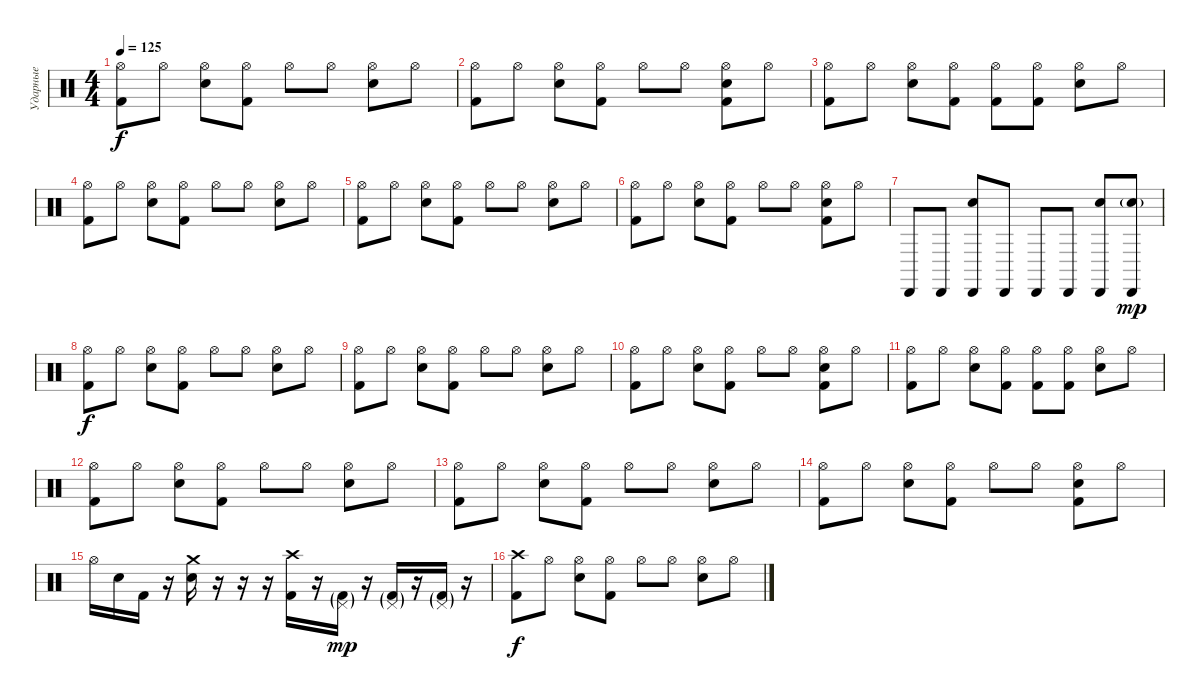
\track ("Ударные" "Ударные") {instrument percussion}
\staff {score}
\articulation defaults
\ts (4 4)
\tempo 125
\clef neutral
\ks c
("Hi-Hat (open)" "Kick (hit) 2").8{dy f} "Hi-Hat (open)".8 ("Hi-Hat (open)" "Snare (hit) 2").8 ("Hi-Hat (open)" "Kick (hit) 2").8 "Hi-Hat (open)".8 "Hi-Hat (open)".8 ("Hi-Hat (open)" "Snare (hit) 2").8 "Hi-Hat (open)".8 |
("Hi-Hat (open)" "Kick (hit) 2").8 "Hi-Hat (open)".8 ("Hi-Hat (open)" "Snare (hit) 2").8 ("Hi-Hat (open)" "Kick (hit) 2").8 "Hi-Hat (open)".8 "Hi-Hat (open)".8 ("Hi-Hat (open)" "Snare (hit) 2" "Kick (hit) 2").8 "Hi-Hat (open)".8 |
("Hi-Hat (open)" "Kick (hit) 2").8 "Hi-Hat (open)".8 ("Hi-Hat (open)" "Snare (hit) 2").8 ("Hi-Hat (open)" "Kick (hit) 2").8 ("Hi-Hat (open)" "Kick (hit) 2").8 ("Hi-Hat (open)" "Kick (hit) 2").8 ("Hi-Hat (open)" "Snare (hit) 2").8 "Hi-Hat (open)".8 |
("Hi-Hat (open)" "Kick (hit) 2").8 "Hi-Hat (open)".8 ("Hi-Hat (open)" "Snare (hit) 2").8 ("Hi-Hat (open)" "Kick (hit) 2").8 "Hi-Hat (open)".8 "Hi-Hat (open)".8 ("Hi-Hat (open)" "Snare (hit) 2").8 "Hi-Hat (open)".8 |
("Hi-Hat (open)" "Kick (hit) 2").8 "Hi-Hat (open)".8 ("Hi-Hat (open)" "Snare (hit) 2").8 ("Hi-Hat (open)" "Kick (hit) 2").8 "Hi-Hat (open)".8 "Hi-Hat (open)".8 ("Hi-Hat (open)" "Snare (hit) 2").8 "Hi-Hat (open)".8 |
("Hi-Hat (open)" "Kick (hit) 2").8 "Hi-Hat (open)".8 ("Hi-Hat (open)" "Snare (hit) 2").8 ("Hi-Hat (open)" "Kick (hit) 2").8 "Hi-Hat (open)".8 "Hi-Hat (open)".8 ("Hi-Hat (open)" "Snare (hit) 2" "Kick (hit) 2").8 "Hi-Hat (open)".8 |
"Cabasa (hit)".8 "Cabasa (hit)".8 ("Cabasa (hit)" "Electric Snare (hit)").8 "Cabasa (hit)".8 "Cabasa (hit)".8 "Cabasa (hit)".8 ("Cabasa (hit)" "Electric Snare (hit)").8 ("Cabasa (hit)" "Electric Snare (hit)"{g}).8{dy mp} |
("Hi-Hat (open)" "Kick (hit) 2").8{dy f} "Hi-Hat (open)".8 ("Hi-Hat (open)" "Snare (hit) 2").8 ("Hi-Hat (open)" "Kick (hit) 2").8 "Hi-Hat (open)".8 "Hi-Hat (open)".8 ("Hi-Hat (open)" "Snare (hit) 2").8 "Hi-Hat (open)".8 |
("Hi-Hat (open)" "Kick (hit) 2").8 "Hi-Hat (open)".8 ("Hi-Hat (open)" "Snare (hit) 2").8 ("Hi-Hat (open)" "Kick (hit) 2").8 "Hi-Hat (open)".8 "Hi-Hat (open)".8 ("Hi-Hat (open)" "Snare (hit) 2").8 "Hi-Hat (open)".8 |
("Hi-Hat (open)" "Kick (hit) 2").8 "Hi-Hat (open)".8 ("Hi-Hat (open)" "Snare (hit) 2").8 ("Hi-Hat (open)" "Kick (hit) 2").8 "Hi-Hat (open)".8 "Hi-Hat (open)".8 ("Hi-Hat (open)" "Snare (hit) 2" "Kick (hit) 2").8 "Hi-Hat (open)".8 |
("Hi-Hat (open)" "Kick (hit) 2").8 "Hi-Hat (open)".8 ("Hi-Hat (open)" "Snare (hit) 2").8 ("Hi-Hat (open)" "Kick (hit) 2").8 ("Hi-Hat (open)" "Kick (hit) 2").8 ("Hi-Hat (open)" "Kick (hit) 2").8 ("Hi-Hat (open)" "Snare (hit) 2").8 "Hi-Hat (open)".8 |
("Hi-Hat (open)" "Kick (hit) 2").8 "Hi-Hat (open)".8 ("Hi-Hat (open)" "Snare (hit) 2").8 ("Hi-Hat (open)" "Kick (hit) 2").8 "Hi-Hat (open)".8 "Hi-Hat (open)".8 ("Hi-Hat (open)" "Snare (hit) 2").8 "Hi-Hat (open)".8 |
("Hi-Hat (open)" "Kick (hit) 2").8 "Hi-Hat (open)".8 ("Hi-Hat (open)" "Snare (hit) 2").8 ("Hi-Hat (open)" "Kick (hit) 2").8 "Hi-Hat (open)".8 "Hi-Hat (open)".8 ("Hi-Hat (open)" "Snare (hit) 2").8 "Hi-Hat (open)".8 |
("Hi-Hat (open)" "Kick (hit) 2").8 "Hi-Hat (open)".8 ("Hi-Hat (open)" "Snare (hit) 2").8 ("Hi-Hat (open)" "Kick (hit) 2").8 "Hi-Hat (open)".8 "Hi-Hat (open)".8 ("Hi-Hat (open)" "Snare (hit) 2" "Kick (hit) 2").8 "Hi-Hat (open)".8 |
"Hi-Hat (open)".16 "Snare (hit) 2".16 "Kick (hit) 2".16 r.16 ("Crash medium (hit)" "Snare (hit) 2").16 r.16 r.16 r.16 ("Crash high (hit)" "Kick (hit) 2").16 r.16 ("Pedal Hi-Hat (hit)"{g} "Kick (hit) 2"{g}).16{dy mp} r.16 ("Pedal Hi-Hat (hit)"{g} "Kick (hit) 2"{g}).16 r.16 ("Pedal Hi-Hat (hit)"{g} "Kick (hit) 2"{g}).16 r.16 |
("Crash high (hit)" "Kick (hit) 2").8{dy f} "Hi-Hat (open)".8 ("Hi-Hat (open)" "Snare (hit) 2").8 ("Hi-Hat (open)" "Kick (hit) 2").8 "Hi-Hat (open)".8 "Hi-Hat (open)".8 ("Hi-Hat (open)" "Snare (hit) 2").8 "Hi-Hat (open)".8
